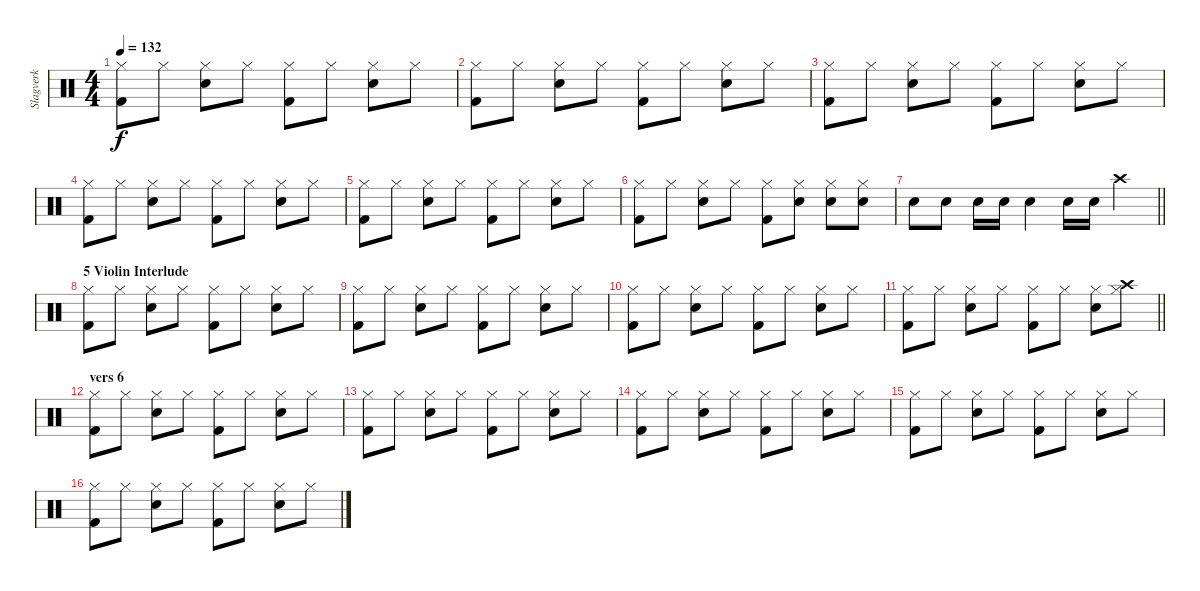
\track ("Slagverk" "Slagverk") {instrument percussion}
\staff {score}
\articulation defaults
\ts (4 4)
\tempo 132
\clef neutral
\ks c
("Kick (hit) 2" "Hi-Hat (closed)").8{dy f} "Hi-Hat (closed)".8 ("Snare (hit) 2" "Hi-Hat (closed)").8 "Hi-Hat (closed)".8 ("Kick (hit) 2" "Hi-Hat (closed)").8 "Hi-Hat (closed)".8 ("Snare (hit) 2" "Hi-Hat (closed)").8 "Hi-Hat (closed)".8 |
("Kick (hit) 2" "Hi-Hat (closed)").8 "Hi-Hat (closed)".8 ("Snare (hit) 2" "Hi-Hat (closed)").8 "Hi-Hat (closed)".8 ("Kick (hit) 2" "Hi-Hat (closed)").8 "Hi-Hat (closed)".8 ("Snare (hit) 2" "Hi-Hat (closed)").8 "Hi-Hat (closed)".8 |
("Kick (hit) 2" "Hi-Hat (closed)").8 "Hi-Hat (closed)".8 ("Snare (hit) 2" "Hi-Hat (closed)").8 "Hi-Hat (closed)".8 ("Kick (hit) 2" "Hi-Hat (closed)").8 "Hi-Hat (closed)".8 ("Snare (hit) 2" "Hi-Hat (closed)").8 "Hi-Hat (closed)".8 |
("Kick (hit) 2" "Hi-Hat (closed)").8 "Hi-Hat (closed)".8 ("Snare (hit) 2" "Hi-Hat (closed)").8 "Hi-Hat (closed)".8 ("Kick (hit) 2" "Hi-Hat (closed)").8 "Hi-Hat (closed)".8 ("Snare (hit) 2" "Hi-Hat (closed)").8 "Hi-Hat (closed)".8 |
("Kick (hit) 2" "Hi-Hat (closed)").8 "Hi-Hat (closed)".8 ("Snare (hit) 2" "Hi-Hat (closed)").8 "Hi-Hat (closed)".8 ("Kick (hit) 2" "Hi-Hat (closed)").8 "Hi-Hat (closed)".8 ("Snare (hit) 2" "Hi-Hat (closed)").8 "Hi-Hat (closed)".8 |
("Kick (hit) 2" "Hi-Hat (closed)").8 "Hi-Hat (closed)".8 ("Snare (hit) 2" "Hi-Hat (closed)").8 "Hi-Hat (closed)".8 ("Kick (hit) 2" "Hi-Hat (closed)").8 ("Snare (hit) 2" "Hi-Hat (closed)").8 ("Snare (hit) 2" "Hi-Hat (closed)").8 ("Snare (hit) 2" "Hi-Hat (closed)").8 |
\barLineRight lightlight "Snare (hit) 2".8 "Snare (hit) 2".8 "Snare (hit) 2".16 "Snare (hit) 2".16 "Snare (hit) 2".4 "Snare (hit) 2".16 "Snare (hit) 2".16 "Crash high (hit)".4
|
\section ("" "5 Violin Interlude")
("Kick (hit) 2" "Hi-Hat (closed)").8 "Hi-Hat (closed)".8 ("Snare (hit) 2" "Hi-Hat (closed)").8 "Hi-Hat (closed)".8 ("Kick (hit) 2" "Hi-Hat (closed)").8 "Hi-Hat (closed)".8 ("Snare (hit) 2" "Hi-Hat (closed)").8 "Hi-Hat (closed)".8 |
("Kick (hit) 2" "Hi-Hat (closed)").8 "Hi-Hat (closed)".8 ("Snare (hit) 2" "Hi-Hat (closed)").8 "Hi-Hat (closed)".8 ("Kick (hit) 2" "Hi-Hat (closed)").8 "Hi-Hat (closed)".8 ("Snare (hit) 2" "Hi-Hat (closed)").8 "Hi-Hat (closed)".8 |
("Kick (hit) 2" "Hi-Hat (closed)").8 "Hi-Hat (closed)".8 ("Snare (hit) 2" "Hi-Hat (closed)").8 "Hi-Hat (closed)".8 ("Kick (hit) 2" "Hi-Hat (closed)").8 "Hi-Hat (closed)".8 ("Snare (hit) 2" "Hi-Hat (closed)").8 "Hi-Hat (closed)".8 |
\barLineRight lightlight
("Kick (hit) 2" "Hi-Hat (closed)").8 "Hi-Hat (closed)".8 ("Snare (hit) 2" "Hi-Hat (closed)").8 "Hi-Hat (closed)".8 ("Kick (hit) 2" "Hi-Hat (closed)").8 "Hi-Hat (closed)".8 ("Snare (hit) 2" "Hi-Hat (closed)").8 ("Hi-Hat (closed)" "Crash high (hit)").8 |
\section ("" "vers 6")
("Kick (hit) 2" "Hi-Hat (closed)").8 "Hi-Hat (closed)".8 ("Snare (hit) 2" "Hi-Hat (closed)").8 "Hi-Hat (closed)".8 ("Kick (hit) 2" "Hi-Hat (closed)").8 "Hi-Hat (closed)".8 ("Snare (hit) 2" "Hi-Hat (closed)").8 "Hi-Hat (closed)".8 |
("Kick (hit) 2" "Hi-Hat (closed)").8 "Hi-Hat (closed)".8 ("Snare (hit) 2" "Hi-Hat (closed)").8 "Hi-Hat (closed)".8 ("Kick (hit) 2" "Hi-Hat (closed)").8 "Hi-Hat (closed)".8 ("Snare (hit) 2" "Hi-Hat (closed)").8 "Hi-Hat (closed)".8 |
("Kick (hit) 2" "Hi-Hat (closed)").8 "Hi-Hat (closed)".8 ("Snare (hit) 2" "Hi-Hat (closed)").8 "Hi-Hat (closed)".8 ("Kick (hit) 2" "Hi-Hat (closed)").8 "Hi-Hat (closed)".8 ("Snare (hit) 2" "Hi-Hat (closed)").8 "Hi-Hat (closed)".8 |
("Kick (hit) 2" "Hi-Hat (closed)").8 "Hi-Hat (closed)".8 ("Snare (hit) 2" "Hi-Hat (closed)").8 "Hi-Hat (closed)".8 ("Kick (hit) 2" "Hi-Hat (closed)").8 "Hi-Hat (closed)".8 ("Snare (hit) 2" "Hi-Hat (closed)").8 "Hi-Hat (closed)".8 |
("Kick (hit) 2" "Hi-Hat (closed)").8 "Hi-Hat (closed)".8 ("Snare (hit) 2" "Hi-Hat (closed)").8 "Hi-Hat (closed)".8 ("Kick (hit) 2" "Hi-Hat (closed)").8 "Hi-Hat (closed)".8 ("Snare (hit) 2" "Hi-Hat (closed)").8 "Hi-Hat (closed)".8
